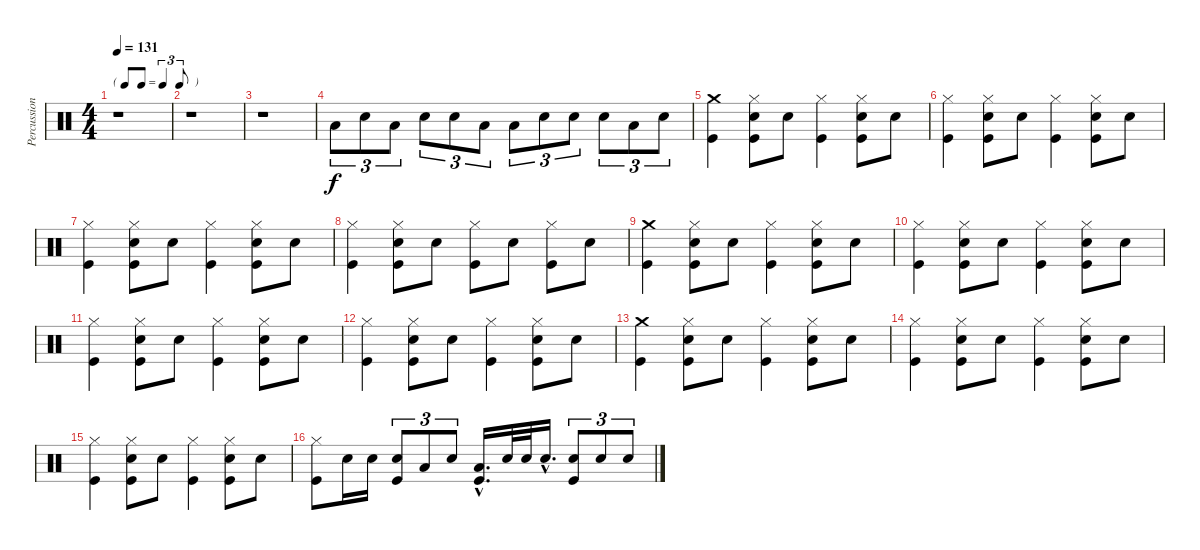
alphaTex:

\track ("Percussion" "Percussion") {instrument percussion}
\staff {score}
\articulation defaults
\ts (4 4)
\tf triplet8th
\tempo 131
\clef neutral
\ks c
r.1{dy f} |
r.1 |
r.1 |
"Low Tom (hit)".8{tu (3 2)} "Snare (hit) 2".8{tu (3 2)} "Low Tom (hit)".8{tu (3 2)} "Snare (hit) 2".8{tu (3 2)} "Snare (hit) 2".8{tu (3 2)} "Low Tom (hit)".8{tu (3 2)} "Low Tom (hit)".8{tu (3 2)} "Snare (hit) 2".8{tu (3 2)} "Snare (hit) 2".8{tu (3 2)} "Snare (hit) 2".8{tu (3 2)} "Low Tom (hit)".8{tu (3 2)} "Snare (hit) 2".8{tu (3 2)} |
("Crash medium (hit)" "Kick (hit)").4 ("Hi-Hat (closed)" "Snare (hit) 2" "Kick (hit)").8 "Snare (hit) 2".8 ("Hi-Hat (closed)" "Kick (hit)").4 ("Hi-Hat (closed)" "Snare (hit) 2" "Kick (hit)").8 "Snare (hit) 2".8 |
("Hi-Hat (closed)" "Kick (hit)").4 ("Hi-Hat (closed)" "Snare (hit) 2" "Kick (hit)").8 "Snare (hit) 2".8 ("Hi-Hat (closed)" "Kick (hit)").4 ("Hi-Hat (closed)" "Snare (hit) 2" "Kick (hit)").8 "Snare (hit) 2".8 |
("Hi-Hat (closed)" "Kick (hit)").4 ("Hi-Hat (closed)" "Snare (hit) 2" "Kick (hit)").8 "Snare (hit) 2".8 ("Hi-Hat (closed)" "Kick (hit)").4 ("Hi-Hat (closed)" "Snare (hit) 2" "Kick (hit)").8 "Snare (hit) 2".8 |
("Hi-Hat (closed)" "Kick (hit)").4 ("Hi-Hat (closed)" "Snare (hit) 2" "Kick (hit)").8 "Snare (hit) 2".8 ("Hi-Hat (closed)" "Kick (hit)").8 "Snare (hit) 2".8 ("Hi-Hat (closed)" "Kick (hit)").8 "Snare (hit) 2".8 |
("Crash medium (hit)" "Kick (hit)").4 ("Hi-Hat (closed)" "Snare (hit) 2" "Kick (hit)").8 "Snare (hit) 2".8 ("Hi-Hat (closed)" "Kick (hit)").4 ("Hi-Hat (closed)" "Snare (hit) 2" "Kick (hit)").8 "Snare (hit) 2".8 |
("Hi-Hat (closed)" "Kick (hit)").4 ("Hi-Hat (closed)" "Snare (hit) 2" "Kick (hit)").8 "Snare (hit) 2".8 ("Hi-Hat (closed)" "Kick (hit)").4 ("Hi-Hat (closed)" "Snare (hit) 2" "Kick (hit)").8 "Snare (hit) 2".8 |
("Hi-Hat (closed)" "Kick (hit)").4 ("Hi-Hat (closed)" "Snare (hit) 2" "Kick (hit)").8 "Snare (hit) 2".8 ("Hi-Hat (closed)" "Kick (hit)").4 ("Hi-Hat (closed)" "Snare (hit) 2" "Kick (hit)").8 "Snare (hit) 2".8 |
("Hi-Hat (closed)" "Kick (hit)").4 ("Hi-Hat (closed)" "Snare (hit) 2" "Kick (hit)").8 "Snare (hit) 2".8 ("Hi-Hat (closed)" "Kick (hit)").4 ("Hi-Hat (closed)" "Snare (hit) 2" "Kick (hit)").8 "Snare (hit) 2".8 |
("Crash medium (hit)" "Kick (hit)").4 ("Hi-Hat (closed)" "Snare (hit) 2" "Kick (hit)").8 "Snare (hit) 2".8 ("Hi-Hat (closed)" "Kick (hit)").4 ("Hi-Hat (closed)" "Snare (hit) 2" "Kick (hit)").8 "Snare (hit) 2".8 |
("Hi-Hat (closed)" "Kick (hit)").4 ("Hi-Hat (closed)" "Snare (hit) 2" "Kick (hit)").8 "Snare (hit) 2".8 ("Hi-Hat (closed)" "Kick (hit)").4 ("Hi-Hat (closed)" "Snare (hit) 2" "Kick (hit)").8 "Snare (hit) 2".8 |
("Hi-Hat (closed)" "Kick (hit)").4 ("Hi-Hat (closed)" "Snare (hit) 2" "Kick (hit)").8 "Snare (hit) 2".8 ("Hi-Hat (closed)" "Kick (hit)").4 ("Hi-Hat (closed)" "Snare (hit) 2" "Kick (hit)").8 "Snare (hit) 2".8 |
("Hi-Hat (closed)" "Kick (hit)").8 "Snare (hit) 2".16 "Snare (hit) 2".16 ("Snare (hit) 2" "Kick (hit)").8{tu (3 2)} "Low Tom (hit)".8{tu (3 2)} "Snare (hit) 2".8{tu (3 2)} ("Low Tom (hit)"{hac} "Kick (hit)"{hac}).16{d} "Snare (hit) 2".32 "Snare (hit) 2".32 "Snare (hit) 2"{hac}.16{d} ("Snare (hit) 2" "Kick (hit)").8{tu (3 2)} "Snare (hit) 2".8{tu (3 2)} "Snare (hit) 2".8{tu (3 2)}
